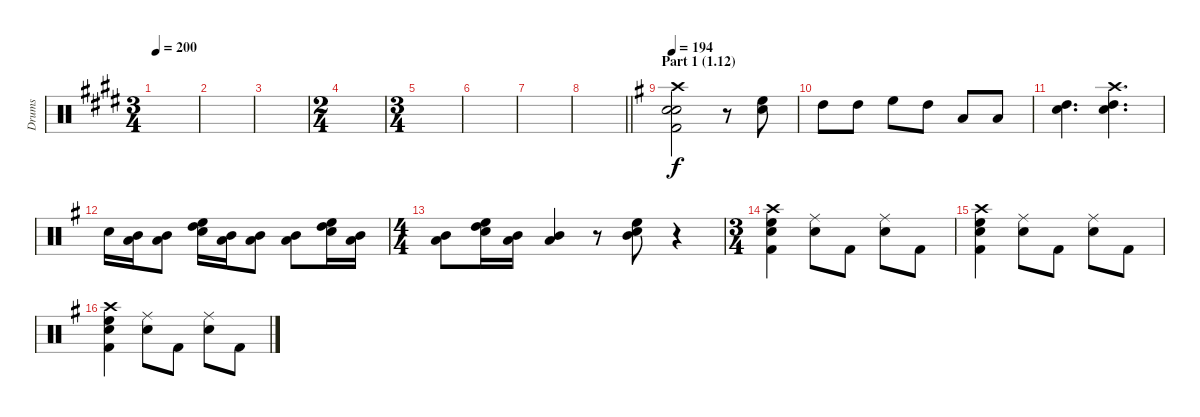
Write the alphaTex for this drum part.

\track ("Drums" "Drums") {instrument percussion}
\staff {score}
\articulation defaults
\ts (3 4)
\tempo 200
\clef neutral
\ks e
|
|
|
\ts (2 4)
|
\ts (3 4)
|
|
|
\barLineRight lightlight
|
\section ("" "Part 1 (1.12)")
\tempo 194
\ks g
("Kick (hit) 2" "Snare (hit) 2" "Electric Snare (hit)" "Crash high (hit)").2 r.8 ("High Floor Tom (hit)" "Electric Snare (hit)").8 |
"High Tom (hit)".8 "High Tom (hit)".8 "High Floor Tom (hit)".8 "High Tom (hit)".8 "Low Tom (hit)".8 "Low Tom (hit)".8 |
("Electric Snare (hit)" "High Tom (hit)").4{d} ("Electric Snare (hit)" "High Tom (hit)" "Crash high (hit)").4{d} |
"Electric Snare (hit)".16 ("Mid Tom (hit)" "Low Tom (hit)").16 ("Mid Tom (hit)" "Low Tom (hit)").8 ("High Floor Tom (hit)" "High Tom (hit)" "Electric Snare (hit)").16 ("Mid Tom (hit)" "Low Tom (hit)").16 ("Mid Tom (hit)" "Low Tom (hit)").8 ("Mid Tom (hit)" "Low Tom (hit)").8 ("High Floor Tom (hit)" "High Tom (hit)" "Electric Snare (hit)").16 ("Mid Tom (hit)" "Low Tom (hit)").16 |
\ts (4 4)
("Mid Tom (hit)" "Low Tom (hit)").8 ("High Floor Tom (hit)" "High Tom (hit)" "Electric Snare (hit)").16 ("Mid Tom (hit)" "Low Tom (hit)").16 ("Mid Tom (hit)" "Low Tom (hit)").4 r.8 ("Mid Tom (hit)" "High Floor Tom (hit)" "Electric Snare (hit)").8 r.4 |
\ts (3 4)
("Kick (hit) 2" "Crash high (hit)" "High Floor Tom (hit)" "Electric Snare (hit)").4 ("Ride (middle)" "Electric Snare (hit)").8 "Kick (hit) 2".8 ("Ride (middle)" "Electric Snare (hit)").8 "Kick (hit) 2".8 |
("Kick (hit) 2" "Crash high (hit)" "High Floor Tom (hit)" "Electric Snare (hit)").4 ("Ride (middle)" "Electric Snare (hit)").8 "Kick (hit) 2".8 ("Ride (middle)" "Electric Snare (hit)").8 "Kick (hit) 2".8 |
("Kick (hit) 2" "Crash high (hit)" "High Floor Tom (hit)" "Electric Snare (hit)").4 ("Ride (middle)" "Electric Snare (hit)").8 "Kick (hit) 2".8 ("Ride (middle)" "Electric Snare (hit)").8 "Kick (hit) 2".8
